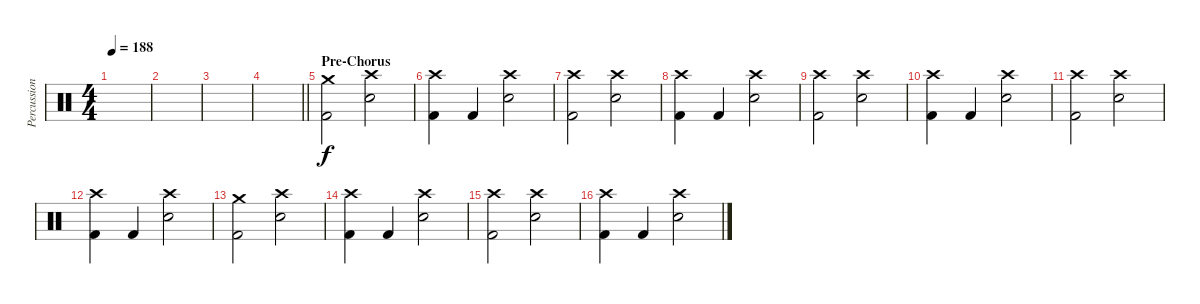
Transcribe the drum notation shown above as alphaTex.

\track ("Percussion" "Percussion") {instrument percussion}
\staff {score}
\articulation defaults
\ts (4 4)
\tempo 188
\clef neutral
\ks c
|
|
|
\barLineRight lightlight
|
\section ("" "Pre-Chorus")
("Crash medium (hit)" "Kick (hit) 2").2 ("Crash high (hit)" "Snare (hit) 2").2 |
("Crash high (hit)" "Kick (hit) 2").4 "Kick (hit) 2".4 ("Crash high (hit)" "Snare (hit) 2").2 |
("Crash high (hit)" "Kick (hit) 2").2 ("Crash high (hit)" "Snare (hit) 2").2 |
("Crash high (hit)" "Kick (hit) 2").4 "Kick (hit) 2".4 ("Crash high (hit)" "Snare (hit) 2").2 |
("Crash high (hit)" "Kick (hit) 2").2 ("Crash high (hit)" "Snare (hit) 2").2 |
("Crash high (hit)" "Kick (hit) 2").4 "Kick (hit) 2".4 ("Crash high (hit)" "Snare (hit) 2").2 |
("Crash high (hit)" "Kick (hit) 2").2 ("Crash high (hit)" "Snare (hit) 2").2 |
("Crash high (hit)" "Kick (hit) 2").4 "Kick (hit) 2".4 ("Crash high (hit)" "Snare (hit) 2").2 |
("Crash medium (hit)" "Kick (hit) 2").2 ("Crash high (hit)" "Snare (hit) 2").2 |
("Crash high (hit)" "Kick (hit) 2").4 "Kick (hit) 2".4 ("Crash high (hit)" "Snare (hit) 2").2 |
("Crash high (hit)" "Kick (hit) 2").2 ("Crash high (hit)" "Snare (hit) 2").2 |
("Crash high (hit)" "Kick (hit) 2").4 "Kick (hit) 2".4 ("Crash high (hit)" "Snare (hit) 2").2
